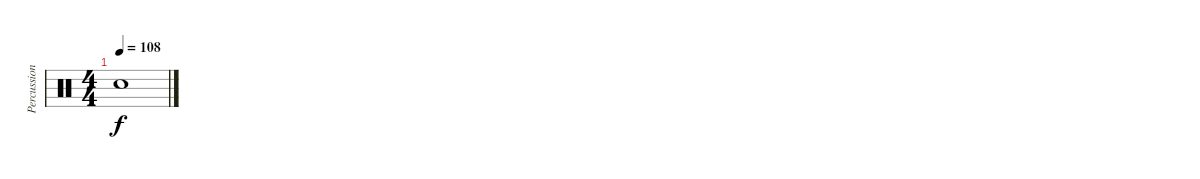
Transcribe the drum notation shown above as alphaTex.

\track ("Percussion" "Percussion") {instrument percussion}
\staff {score}
\articulation defaults
\ts (4 4)
\tempo 108
\clef neutral
\ks c "Snare (hit)"{t}.1{dy f}
